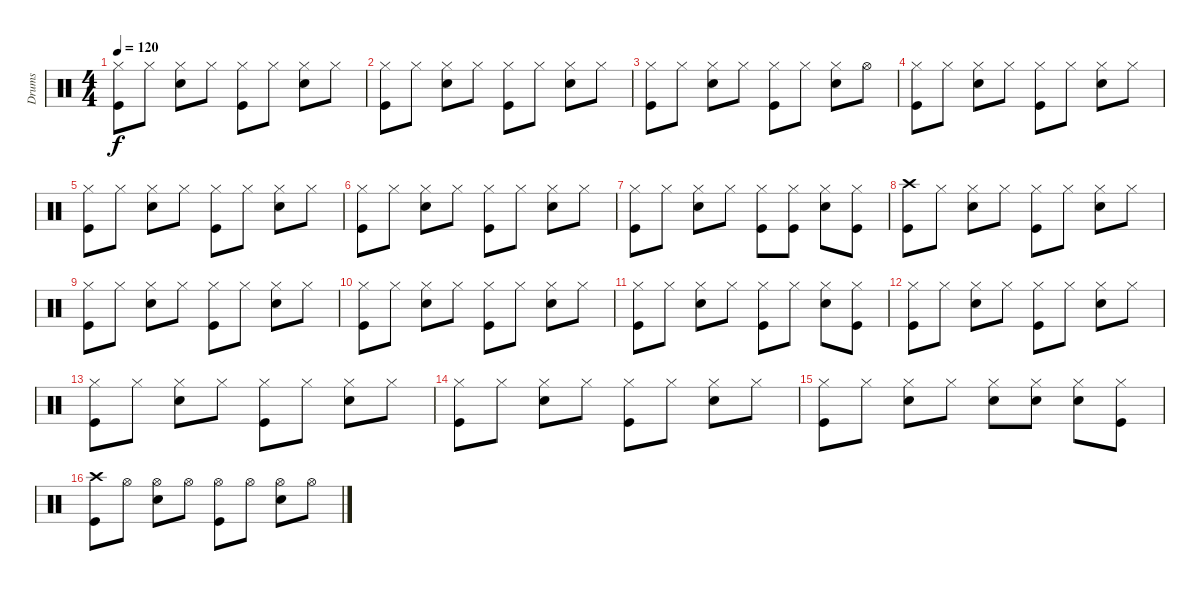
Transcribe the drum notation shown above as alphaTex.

\track ("Drums" "Drums") {instrument percussion}
\staff {score}
\articulation defaults
\ts (4 4)
\tempo 120
\clef neutral
\ks c
("Hi-Hat (closed)" "Kick (hit)").8{dy f} "Hi-Hat (closed)".8 ("Hi-Hat (closed)" "Snare (hit) 2").8 "Hi-Hat (closed)".8 ("Hi-Hat (closed)" "Kick (hit)").8 "Hi-Hat (closed)".8 ("Hi-Hat (closed)" "Snare (hit) 2").8 "Hi-Hat (closed)".8 |
("Hi-Hat (closed)" "Kick (hit)").8 "Hi-Hat (closed)".8 ("Hi-Hat (closed)" "Snare (hit) 2").8 "Hi-Hat (closed)".8 ("Hi-Hat (closed)" "Kick (hit)").8 "Hi-Hat (closed)".8 ("Hi-Hat (closed)" "Snare (hit) 2").8 "Hi-Hat (closed)".8 |
("Hi-Hat (closed)" "Kick (hit)").8 "Hi-Hat (closed)".8 ("Hi-Hat (closed)" "Snare (hit) 2").8 "Hi-Hat (closed)".8 ("Hi-Hat (closed)" "Kick (hit)").8 "Hi-Hat (closed)".8 ("Hi-Hat (closed)" "Snare (hit) 2").8 "Hi-Hat (open)".8 |
("Hi-Hat (closed)" "Kick (hit)").8 "Hi-Hat (closed)".8 ("Hi-Hat (closed)" "Snare (hit) 2").8 "Hi-Hat (closed)".8 ("Hi-Hat (closed)" "Kick (hit)").8 "Hi-Hat (closed)".8 ("Hi-Hat (closed)" "Snare (hit) 2").8 "Hi-Hat (closed)".8 |
("Hi-Hat (closed)" "Kick (hit)").8 "Hi-Hat (closed)".8 ("Hi-Hat (closed)" "Snare (hit) 2").8 "Hi-Hat (closed)".8 ("Hi-Hat (closed)" "Kick (hit)").8 "Hi-Hat (closed)".8 ("Hi-Hat (closed)" "Snare (hit) 2").8 "Hi-Hat (closed)".8 |
("Hi-Hat (closed)" "Kick (hit)").8 "Hi-Hat (closed)".8 ("Hi-Hat (closed)" "Snare (hit) 2").8 "Hi-Hat (closed)".8 ("Hi-Hat (closed)" "Kick (hit)").8 "Hi-Hat (closed)".8 ("Hi-Hat (closed)" "Snare (hit) 2").8 "Hi-Hat (closed)".8 |
("Hi-Hat (closed)" "Kick (hit)").8 "Hi-Hat (closed)".8 ("Hi-Hat (closed)" "Snare (hit) 2").8 "Hi-Hat (closed)".8 ("Hi-Hat (closed)" "Kick (hit)").8 ("Hi-Hat (closed)" "Kick (hit)").8 ("Hi-Hat (closed)" "Snare (hit) 2").8 ("Hi-Hat (closed)" "Kick (hit)").8 |
("Kick (hit)" "Crash high (hit)").8 "Hi-Hat (closed)".8 ("Hi-Hat (closed)" "Snare (hit) 2").8 "Hi-Hat (closed)".8 ("Hi-Hat (closed)" "Kick (hit)").8 "Hi-Hat (closed)".8 ("Hi-Hat (closed)" "Snare (hit) 2").8 "Hi-Hat (closed)".8 |
("Hi-Hat (closed)" "Kick (hit)").8 "Hi-Hat (closed)".8 ("Hi-Hat (closed)" "Snare (hit) 2").8 "Hi-Hat (closed)".8 ("Hi-Hat (closed)" "Kick (hit)").8 "Hi-Hat (closed)".8 ("Hi-Hat (closed)" "Snare (hit) 2").8 "Hi-Hat (closed)".8 |
("Hi-Hat (closed)" "Kick (hit)").8 "Hi-Hat (closed)".8 ("Hi-Hat (closed)" "Snare (hit) 2").8 "Hi-Hat (closed)".8 ("Hi-Hat (closed)" "Kick (hit)").8 "Hi-Hat (closed)".8 ("Hi-Hat (closed)" "Snare (hit) 2").8 "Hi-Hat (closed)".8 |
("Hi-Hat (closed)" "Kick (hit)").8 "Hi-Hat (closed)".8 ("Hi-Hat (closed)" "Snare (hit) 2").8 "Hi-Hat (closed)".8 ("Hi-Hat (closed)" "Kick (hit)").8 "Hi-Hat (closed)".8 ("Hi-Hat (closed)" "Snare (hit) 2").8 ("Hi-Hat (closed)" "Kick (hit)").8 |
("Hi-Hat (closed)" "Kick (hit)").8 "Hi-Hat (closed)".8 ("Hi-Hat (closed)" "Snare (hit) 2").8 "Hi-Hat (closed)".8 ("Hi-Hat (closed)" "Kick (hit)").8 "Hi-Hat (closed)".8 ("Hi-Hat (closed)" "Snare (hit) 2").8 "Hi-Hat (closed)".8 |
("Hi-Hat (closed)" "Kick (hit)").8 "Hi-Hat (closed)".8 ("Hi-Hat (closed)" "Snare (hit) 2").8 "Hi-Hat (closed)".8 ("Hi-Hat (closed)" "Kick (hit)").8 "Hi-Hat (closed)".8 ("Hi-Hat (closed)" "Snare (hit) 2").8 "Hi-Hat (closed)".8 |
("Hi-Hat (closed)" "Kick (hit)").8 "Hi-Hat (closed)".8 ("Hi-Hat (closed)" "Snare (hit) 2").8 "Hi-Hat (closed)".8 ("Hi-Hat (closed)" "Kick (hit)").8 "Hi-Hat (closed)".8 ("Hi-Hat (closed)" "Snare (hit) 2").8 "Hi-Hat (closed)".8 |
("Hi-Hat (closed)" "Kick (hit)").8 "Hi-Hat (closed)".8 ("Hi-Hat (closed)" "Snare (hit) 2").8 "Hi-Hat (closed)".8 ("Hi-Hat (closed)" "Snare (hit) 2").8 ("Hi-Hat (closed)" "Snare (hit) 2").8 ("Hi-Hat (closed)" "Snare (hit) 2").8 ("Hi-Hat (closed)" "Kick (hit)").8 |
("Kick (hit)" "Crash high (hit)").8 "Hi-Hat (open)".8 ("Hi-Hat (open)" "Snare (hit) 2").8 "Hi-Hat (open)".8 ("Hi-Hat (open)" "Kick (hit)").8 "Hi-Hat (open)".8 ("Hi-Hat (open)" "Snare (hit) 2").8 "Hi-Hat (open)".8
